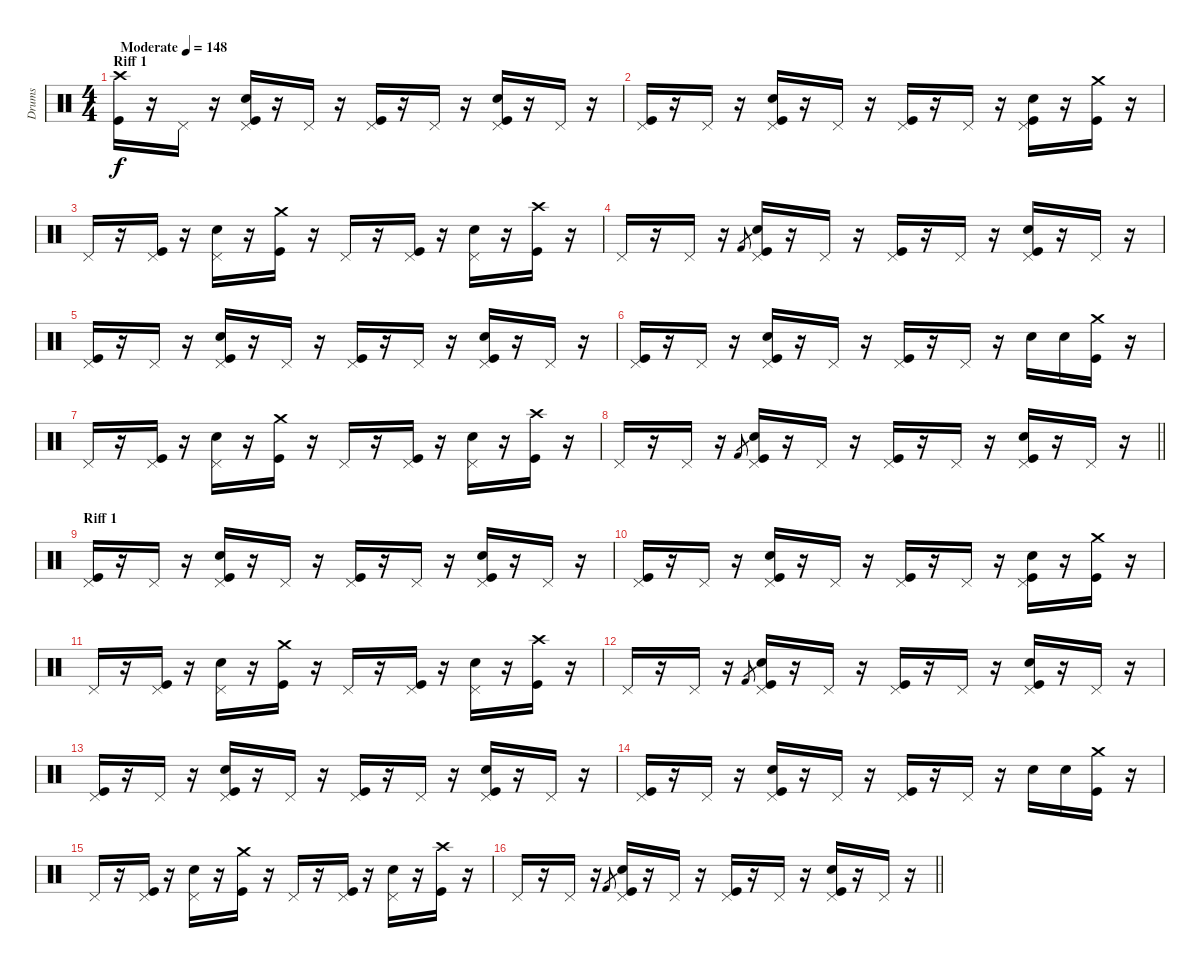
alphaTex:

\track ("Drums" "Drums") {instrument percussion}
\staff {score}
\articulation defaults
\ts (4 4)
\section ("" "Riff 1")
\tempo (148 "Moderate")
\clef neutral
\ks c
("Crash high (hit)" "Kick (hit)").16{dy f} r.16 "Pedal Hi-Hat (hit)".16 r.16 ("Pedal Hi-Hat (hit)" "Electric Snare (hit)" "Kick (hit)").16 r.16 "Pedal Hi-Hat (hit)".16 r.16 ("Pedal Hi-Hat (hit)" "Kick (hit)").16 r.16 "Pedal Hi-Hat (hit)".16 r.16 ("Pedal Hi-Hat (hit)" "Electric Snare (hit)" "Kick (hit)").16 r.16 "Pedal Hi-Hat (hit)".16 r.16 |
("Pedal Hi-Hat (hit)" "Kick (hit)").16 r.16 "Pedal Hi-Hat (hit)".16 r.16 ("Pedal Hi-Hat (hit)" "Electric Snare (hit)" "Kick (hit)").16 r.16 "Pedal Hi-Hat (hit)".16 r.16 ("Pedal Hi-Hat (hit)" "Kick (hit)").16 r.16 "Pedal Hi-Hat (hit)".16 r.16 ("Pedal Hi-Hat (hit)" "Electric Snare (hit)" "Kick (hit)").16 r.16 ("Crash medium (hit)" "Kick (hit)").16 r.16 |
"Pedal Hi-Hat (hit)".16 r.16 ("Pedal Hi-Hat (hit)" "Kick (hit)").16 r.16 ("Pedal Hi-Hat (hit)" "Electric Snare (hit)").16 r.16 ("Crash medium (hit)" "Kick (hit)").16 r.16 "Pedal Hi-Hat (hit)".16 r.16 ("Pedal Hi-Hat (hit)" "Kick (hit)").16 r.16 ("Pedal Hi-Hat (hit)" "Electric Snare (hit)").16 r.16 ("Crash high (hit)" "Kick (hit)").16 r.16 |
"Pedal Hi-Hat (hit)".16 r.16 "Pedal Hi-Hat (hit)".16 r.16 "Kick (hit) 2".8{gr} ("Pedal Hi-Hat (hit)" "Electric Snare (hit)" "Kick (hit)").16 r.16 "Pedal Hi-Hat (hit)".16 r.16 ("Pedal Hi-Hat (hit)" "Kick (hit)").16 r.16 "Pedal Hi-Hat (hit)".16 r.16 ("Pedal Hi-Hat (hit)" "Electric Snare (hit)" "Kick (hit)").16 r.16 "Pedal Hi-Hat (hit)".16 r.16 |
("Pedal Hi-Hat (hit)" "Kick (hit)").16 r.16 "Pedal Hi-Hat (hit)".16 r.16 ("Pedal Hi-Hat (hit)" "Electric Snare (hit)" "Kick (hit)").16 r.16 "Pedal Hi-Hat (hit)".16 r.16 ("Pedal Hi-Hat (hit)" "Kick (hit)").16 r.16 "Pedal Hi-Hat (hit)".16 r.16 ("Pedal Hi-Hat (hit)" "Electric Snare (hit)" "Kick (hit)").16 r.16 "Pedal Hi-Hat (hit)".16 r.16 |
("Pedal Hi-Hat (hit)" "Kick (hit)").16 r.16 "Pedal Hi-Hat (hit)".16 r.16 ("Pedal Hi-Hat (hit)" "Electric Snare (hit)" "Kick (hit)").16 r.16 "Pedal Hi-Hat (hit)".16 r.16 ("Pedal Hi-Hat (hit)" "Kick (hit)").16 r.16 "Pedal Hi-Hat (hit)".16 r.16 "Electric Snare (hit)".16 "Electric Snare (hit)".16 ("Crash medium (hit)" "Kick (hit)").16 r.16 |
"Pedal Hi-Hat (hit)".16 r.16 ("Pedal Hi-Hat (hit)" "Kick (hit)").16 r.16 ("Pedal Hi-Hat (hit)" "Electric Snare (hit)").16 r.16 ("Crash medium (hit)" "Kick (hit)").16 r.16 "Pedal Hi-Hat (hit)".16 r.16 ("Pedal Hi-Hat (hit)" "Kick (hit)").16 r.16 ("Pedal Hi-Hat (hit)" "Electric Snare (hit)").16 r.16 ("Crash high (hit)" "Kick (hit)").16 r.16 |
\barLineRight lightlight "Pedal Hi-Hat (hit)".16
r.16 "Pedal Hi-Hat (hit)".16 r.16 "Kick (hit) 2".8{gr} ("Pedal Hi-Hat (hit)" "Electric Snare (hit)" "Kick (hit)").16 r.16 "Pedal Hi-Hat (hit)".16 r.16 ("Pedal Hi-Hat (hit)" "Kick (hit)").16 r.16 "Pedal Hi-Hat (hit)".16 r.16 ("Pedal Hi-Hat (hit)" "Electric Snare (hit)" "Kick (hit)").16 r.16 "Pedal Hi-Hat (hit)".16 r.16 |
\section ("" "Riff 1")
("Pedal Hi-Hat (hit)" "Kick (hit)").16 r.16 "Pedal Hi-Hat (hit)".16 r.16 ("Pedal Hi-Hat (hit)" "Electric Snare (hit)" "Kick (hit)").16 r.16 "Pedal Hi-Hat (hit)".16 r.16 ("Pedal Hi-Hat (hit)" "Kick (hit)").16 r.16 "Pedal Hi-Hat (hit)".16 r.16 ("Pedal Hi-Hat (hit)" "Electric Snare (hit)" "Kick (hit)").16 r.16 "Pedal Hi-Hat (hit)".16 r.16 |
("Pedal Hi-Hat (hit)" "Kick (hit)").16 r.16 "Pedal Hi-Hat (hit)".16 r.16 ("Pedal Hi-Hat (hit)" "Electric Snare (hit)" "Kick (hit)").16 r.16 "Pedal Hi-Hat (hit)".16 r.16 ("Pedal Hi-Hat (hit)" "Kick (hit)").16 r.16 "Pedal Hi-Hat (hit)".16 r.16 ("Pedal Hi-Hat (hit)" "Electric Snare (hit)" "Kick (hit)").16 r.16 ("Crash medium (hit)" "Kick (hit)").16 r.16 |
"Pedal Hi-Hat (hit)".16 r.16 ("Pedal Hi-Hat (hit)" "Kick (hit)").16 r.16 ("Pedal Hi-Hat (hit)" "Electric Snare (hit)").16 r.16 ("Crash medium (hit)" "Kick (hit)").16 r.16 "Pedal Hi-Hat (hit)".16 r.16 ("Pedal Hi-Hat (hit)" "Kick (hit)").16 r.16 ("Pedal Hi-Hat (hit)" "Electric Snare (hit)").16 r.16 ("Crash high (hit)" "Kick (hit)").16 r.16 |
"Pedal Hi-Hat (hit)".16 r.16 "Pedal Hi-Hat (hit)".16 r.16 "Kick (hit) 2".8{gr} ("Pedal Hi-Hat (hit)" "Electric Snare (hit)" "Kick (hit)").16 r.16 "Pedal Hi-Hat (hit)".16 r.16 ("Pedal Hi-Hat (hit)" "Kick (hit)").16 r.16 "Pedal Hi-Hat (hit)".16 r.16 ("Pedal Hi-Hat (hit)" "Electric Snare (hit)" "Kick (hit)").16 r.16 "Pedal Hi-Hat (hit)".16 r.16 |
("Pedal Hi-Hat (hit)" "Kick (hit)").16 r.16 "Pedal Hi-Hat (hit)".16 r.16 ("Pedal Hi-Hat (hit)" "Electric Snare (hit)" "Kick (hit)").16 r.16 "Pedal Hi-Hat (hit)".16 r.16 ("Pedal Hi-Hat (hit)" "Kick (hit)").16 r.16 "Pedal Hi-Hat (hit)".16 r.16 ("Pedal Hi-Hat (hit)" "Electric Snare (hit)" "Kick (hit)").16 r.16 "Pedal Hi-Hat (hit)".16 r.16 |
("Pedal Hi-Hat (hit)" "Kick (hit)").16 r.16 "Pedal Hi-Hat (hit)".16 r.16 ("Pedal Hi-Hat (hit)" "Electric Snare (hit)" "Kick (hit)").16 r.16 "Pedal Hi-Hat (hit)".16 r.16 ("Pedal Hi-Hat (hit)" "Kick (hit)").16 r.16 "Pedal Hi-Hat (hit)".16 r.16 "Electric Snare (hit)".16 "Electric Snare (hit)".16 ("Crash medium (hit)" "Kick (hit)").16 r.16 |
"Pedal Hi-Hat (hit)".16 r.16 ("Pedal Hi-Hat (hit)" "Kick (hit)").16 r.16 ("Pedal Hi-Hat (hit)" "Electric Snare (hit)").16 r.16 ("Crash medium (hit)" "Kick (hit)").16 r.16 "Pedal Hi-Hat (hit)".16 r.16 ("Pedal Hi-Hat (hit)" "Kick (hit)").16 r.16 ("Pedal Hi-Hat (hit)" "Electric Snare (hit)").16 r.16 ("Crash high (hit)" "Kick (hit)").16 r.16 |
\barLineRight lightlight "Pedal Hi-Hat (hit)".16
r.16 "Pedal Hi-Hat (hit)".16 r.16 "Kick (hit) 2".8{gr} ("Pedal Hi-Hat (hit)" "Electric Snare (hit)" "Kick (hit)").16 r.16 "Pedal Hi-Hat (hit)".16 r.16 ("Pedal Hi-Hat (hit)" "Kick (hit)").16 r.16 "Pedal Hi-Hat (hit)".16 r.16 ("Pedal Hi-Hat (hit)" "Electric Snare (hit)" "Kick (hit)").16 r.16 "Pedal Hi-Hat (hit)".16 r.16
